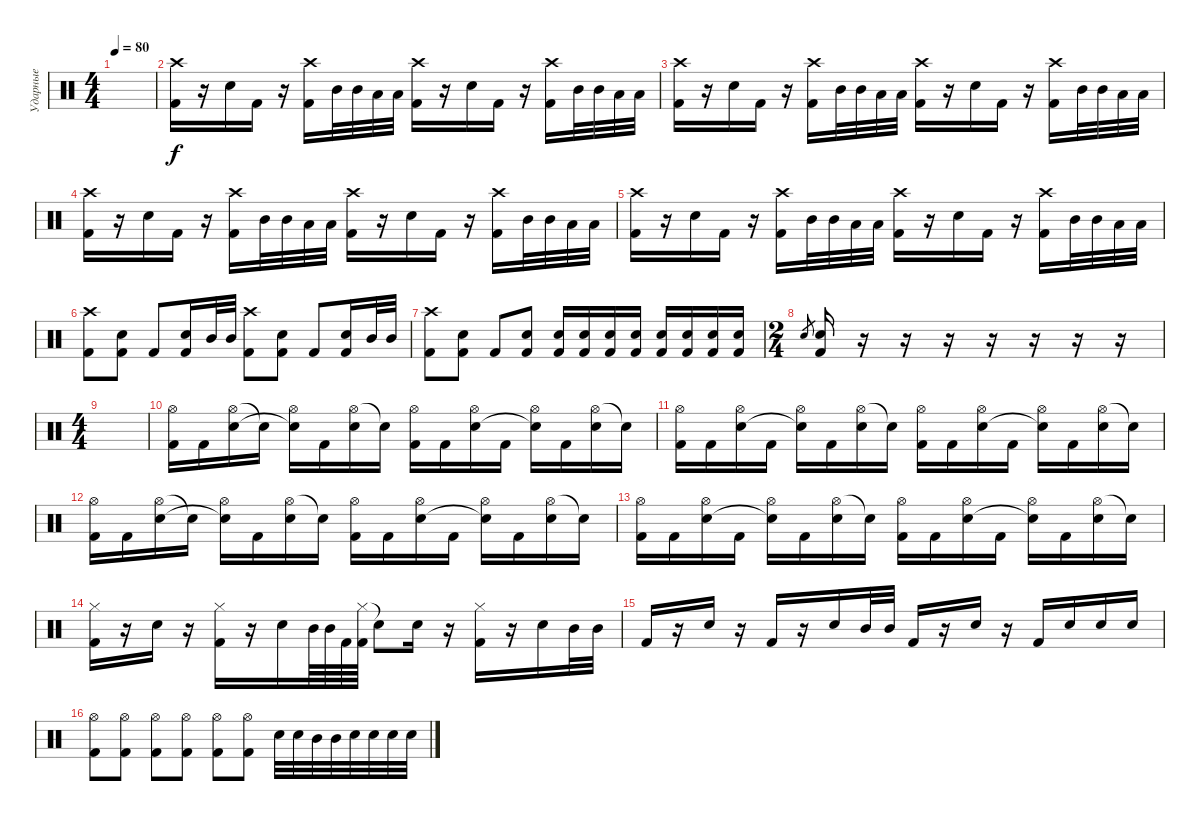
\track ("Ударные" "Ударные") {instrument percussion}
\staff {score}
\articulation defaults
\ts (4 4)
\tempo 80
\clef neutral
\ks c
|
("Crash high (hit)" "Kick (hit) 2").16 r.16 "Electric Snare (hit)".16 "Kick (hit) 2".16 r.16 ("Crash high (hit)" "Kick (hit) 2").16 "Mid Tom (hit)".32 "Mid Tom (hit)".32 "Low Tom (hit)".32 "Low Tom (hit)".32 ("Crash high (hit)" "Kick (hit) 2").16 r.16 "Electric Snare (hit)".16 "Kick (hit) 2".16 r.16 ("Crash high (hit)" "Kick (hit) 2").16 "Mid Tom (hit)".32 "Mid Tom (hit)".32 "Low Tom (hit)".32 "Low Tom (hit)".32 |
("Crash high (hit)" "Kick (hit) 2").16 r.16 "Electric Snare (hit)".16 "Kick (hit) 2".16 r.16 ("Crash high (hit)" "Kick (hit) 2").16 "Mid Tom (hit)".32 "Mid Tom (hit)".32 "Low Tom (hit)".32 "Low Tom (hit)".32 ("Crash high (hit)" "Kick (hit) 2").16 r.16 "Electric Snare (hit)".16 "Kick (hit) 2".16 r.16 ("Crash high (hit)" "Kick (hit) 2").16 "Mid Tom (hit)".32 "Mid Tom (hit)".32 "Low Tom (hit)".32 "Low Tom (hit)".32 |
("Crash high (hit)" "Kick (hit) 2").16 r.16 "Electric Snare (hit)".16 "Kick (hit) 2".16 r.16 ("Crash high (hit)" "Kick (hit) 2").16 "Mid Tom (hit)".32 "Mid Tom (hit)".32 "Low Tom (hit)".32 "Low Tom (hit)".32 ("Crash high (hit)" "Kick (hit) 2").16 r.16 "Electric Snare (hit)".16 "Kick (hit) 2".16 r.16 ("Crash high (hit)" "Kick (hit) 2").16 "Mid Tom (hit)".32 "Mid Tom (hit)".32 "Low Tom (hit)".32 "Low Tom (hit)".32 |
("Crash high (hit)" "Kick (hit) 2").16 r.16 "Electric Snare (hit)".16 "Kick (hit) 2".16 r.16 ("Crash high (hit)" "Kick (hit) 2").16 "Mid Tom (hit)".32 "Mid Tom (hit)".32 "Low Tom (hit)".32 "Low Tom (hit)".32 ("Crash high (hit)" "Kick (hit) 2").16 r.16 "Electric Snare (hit)".16 "Kick (hit) 2".16 r.16 ("Crash high (hit)" "Kick (hit) 2").16 "Mid Tom (hit)".32 "Mid Tom (hit)".32 "Low Tom (hit)".32 "Low Tom (hit)".32 |
("Crash high (hit)" "Kick (hit) 2").8 ("Electric Snare (hit)" "Kick (hit) 2").8 "Kick (hit) 2".8 ("Electric Snare (hit)" "Kick (hit) 2").16 "Mid Tom (hit)".32 "Mid Tom (hit)".32 ("Crash high (hit)" "Kick (hit) 2").8 ("Electric Snare (hit)" "Kick (hit) 2").8 "Kick (hit) 2".8 ("Electric Snare (hit)" "Kick (hit) 2").16 "Mid Tom (hit)".32 "Mid Tom (hit)".32 |
("Crash high (hit)" "Kick (hit) 2").8 ("Electric Snare (hit)" "Kick (hit) 2").8 "Kick (hit) 2".8 ("Electric Snare (hit)" "Kick (hit) 2").8 ("Electric Snare (hit)" "Kick (hit) 2").16 ("Electric Snare (hit)" "Kick (hit) 2").16 ("Electric Snare (hit)" "Kick (hit) 2").16 ("Electric Snare (hit)" "Kick (hit) 2").16 ("Electric Snare (hit)" "Kick (hit) 2").16 ("Electric Snare (hit)" "Kick (hit) 2").16 ("Electric Snare (hit)" "Kick (hit) 2").16 ("Electric Snare (hit)" "Kick (hit) 2").16 |
\ts (2 4)
"Electric Snare (hit)".8{gr} ("Electric Snare (hit)" "Kick (hit) 2").16 r.16 r.16 r.16 r.16 r.16 r.16 r.16 |
\ts (4 4)
|
("Hi-Hat (open)" "Kick (hit) 2").16 "Kick (hit) 2".16 ("Hi-Hat (open)" "Electric Snare (hit)").16 "Snare (hit)"{t}.16 ("Hi-Hat (open)" "Snare (hit)"{t}).16 "Kick (hit) 2".16 ("Hi-Hat (open)" "Electric Snare (hit)").16 "Snare (hit)"{t}.16 ("Hi-Hat (open)" "Kick (hit) 2").16 "Kick (hit) 2".16 ("Hi-Hat (open)" "Electric Snare (hit)").16 "Kick (hit) 2".16 ("Hi-Hat (open)" "Snare (hit)"{t}).16 "Kick (hit) 2".16 ("Hi-Hat (open)" "Electric Snare (hit)").16 "Snare (hit)"{t}.16 |
("Hi-Hat (open)" "Kick (hit) 2").16 "Kick (hit) 2".16 ("Hi-Hat (open)" "Electric Snare (hit)").16 "Kick (hit) 2".16 ("Hi-Hat (open)" "Snare (hit)"{t}).16 "Kick (hit) 2".16 ("Hi-Hat (open)" "Electric Snare (hit)").16 "Snare (hit)"{t}.16 ("Hi-Hat (open)" "Kick (hit) 2").16 "Kick (hit) 2".16 ("Hi-Hat (open)" "Electric Snare (hit)").16 "Kick (hit) 2".16 ("Hi-Hat (open)" "Snare (hit)"{t}).16 "Kick (hit) 2".16 ("Hi-Hat (open)" "Electric Snare (hit)").16 "Snare (hit)"{t}.16 |
("Hi-Hat (open)" "Kick (hit) 2").16 "Kick (hit) 2".16 ("Hi-Hat (open)" "Electric Snare (hit)").16 "Snare (hit)"{t}.16 ("Hi-Hat (open)" "Snare (hit)"{t}).16 "Kick (hit) 2".16 ("Hi-Hat (open)" "Electric Snare (hit)").16 "Snare (hit)"{t}.16 ("Hi-Hat (open)" "Kick (hit) 2").16 "Kick (hit) 2".16 ("Hi-Hat (open)" "Electric Snare (hit)").16 "Kick (hit) 2".16 ("Hi-Hat (open)" "Snare (hit)"{t}).16 "Kick (hit) 2".16 ("Hi-Hat (open)" "Electric Snare (hit)").16 "Snare (hit)"{t}.16 |
("Hi-Hat (open)" "Kick (hit) 2").16 "Kick (hit) 2".16 ("Hi-Hat (open)" "Electric Snare (hit)").16 "Kick (hit) 2".16 ("Hi-Hat (open)" "Snare (hit)"{t}).16 "Kick (hit) 2".16 ("Hi-Hat (open)" "Electric Snare (hit)").16 "Snare (hit)"{t}.16 ("Hi-Hat (open)" "Kick (hit) 2").16 "Kick (hit) 2".16 ("Hi-Hat (open)" "Electric Snare (hit)").16 "Kick (hit) 2".16 ("Hi-Hat (open)" "Snare (hit)"{t}).16 "Kick (hit) 2".16 ("Hi-Hat (open)" "Electric Snare (hit)").16 "Snare (hit)"{t}.16 |
("Hi-Hat (closed)" "Kick (hit) 2").16 r.16 "Electric Snare (hit)".16 r.16 ("Hi-Hat (closed)" "Kick (hit) 2").16 r.16 "Electric Snare (hit)".16 "Mid Tom (hit)".64 "Mid Tom (hit)".64 "Kick (hit) 2".64 ("Hi-Hat (closed)" "Kick (hit) 2").64 "Snare (hit)"{t}.8 "Electric Snare (hit)".16 r.16 ("Hi-Hat (closed)" "Kick (hit) 2").16 r.16 "Electric Snare (hit)".16 "Mid Tom (hit)".32 "Mid Tom (hit)".32 |
"Kick (hit) 2".16 r.16 "Electric Snare (hit)".16 r.16 "Kick (hit) 2".16 r.16 "Electric Snare (hit)".16 "Mid Tom (hit)".32 "Mid Tom (hit)".32 "Kick (hit) 2".16 r.16 "Electric Snare (hit)".16 r.16 "Kick (hit) 2".16 "Electric Snare (hit)".16 "Electric Snare (hit)".16 "Electric Snare (hit)".16 |
("Hi-Hat (open)" "Kick (hit) 2").8 ("Hi-Hat (open)" "Kick (hit) 2").8 ("Hi-Hat (open)" "Kick (hit) 2").8 ("Hi-Hat (open)" "Kick (hit) 2").8 ("Hi-Hat (open)" "Kick (hit) 2").8 ("Hi-Hat (open)" "Kick (hit) 2").8 "Electric Snare (hit)".32 "Electric Snare (hit)".32 "Mid Tom (hit)".32 "Mid Tom (hit)".32 "Electric Snare (hit)".32 "Electric Snare (hit)".32 "Electric Snare (hit)".32 "Electric Snare (hit)".32
